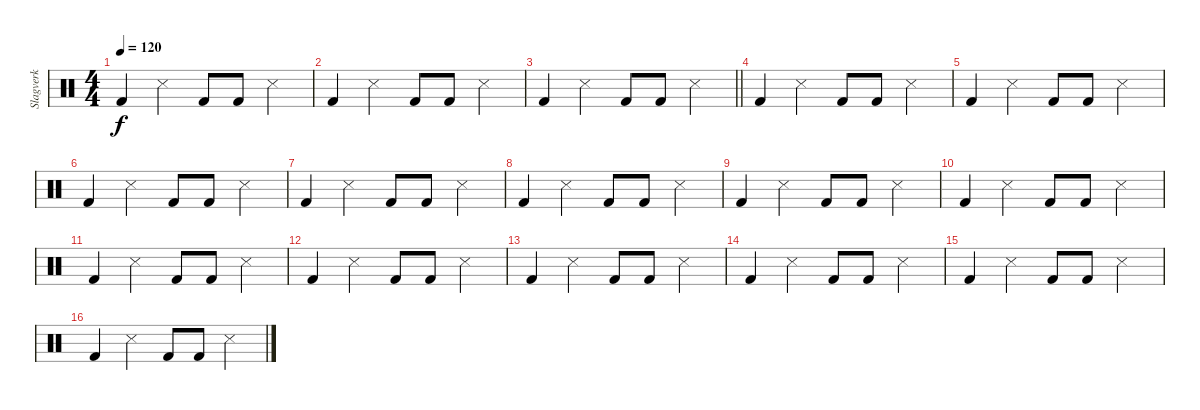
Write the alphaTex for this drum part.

\track ("Slagverk" "Slagverk") {instrument percussion}
\staff {score}
\articulation defaults
\ts (4 4)
\tempo 120
\clef neutral
\ks c "Kick (hit) 2".4{dy f} "Snare (side stick) 3".4 "Kick (hit) 2".8 "Kick (hit) 2".8 "Snare (side stick) 3".4
|
"Kick (hit) 2".4 "Snare (side stick) 3".4 "Kick (hit) 2".8 "Kick (hit) 2".8 "Snare (side stick) 3".4 |
\barLineRight lightlight "Kick (hit) 2".4 "Snare (side stick) 3".4 "Kick (hit) 2".8 "Kick (hit) 2".8 "Snare (side stick) 3".4
|
"Kick (hit) 2".4 "Snare (side stick) 3".4 "Kick (hit) 2".8 "Kick (hit) 2".8 "Snare (side stick) 3".4 |
"Kick (hit) 2".4 "Snare (side stick) 3".4 "Kick (hit) 2".8 "Kick (hit) 2".8 "Snare (side stick) 3".4 |
"Kick (hit) 2".4 "Snare (side stick) 3".4 "Kick (hit) 2".8 "Kick (hit) 2".8 "Snare (side stick) 3".4 |
"Kick (hit) 2".4 "Snare (side stick) 3".4 "Kick (hit) 2".8 "Kick (hit) 2".8 "Snare (side stick) 3".4 |
"Kick (hit) 2".4 "Snare (side stick) 3".4 "Kick (hit) 2".8 "Kick (hit) 2".8 "Snare (side stick) 3".4 |
"Kick (hit) 2".4 "Snare (side stick) 3".4 "Kick (hit) 2".8 "Kick (hit) 2".8 "Snare (side stick) 3".4 |
"Kick (hit) 2".4 "Snare (side stick) 3".4 "Kick (hit) 2".8 "Kick (hit) 2".8 "Snare (side stick) 3".4 |
"Kick (hit) 2".4 "Snare (side stick) 3".4 "Kick (hit) 2".8 "Kick (hit) 2".8 "Snare (side stick) 3".4 |
"Kick (hit) 2".4 "Snare (side stick) 3".4 "Kick (hit) 2".8 "Kick (hit) 2".8 "Snare (side stick) 3".4 |
"Kick (hit) 2".4 "Snare (side stick) 3".4 "Kick (hit) 2".8 "Kick (hit) 2".8 "Snare (side stick) 3".4 |
"Kick (hit) 2".4 "Snare (side stick) 3".4 "Kick (hit) 2".8 "Kick (hit) 2".8 "Snare (side stick) 3".4 |
"Kick (hit) 2".4 "Snare (side stick) 3".4 "Kick (hit) 2".8 "Kick (hit) 2".8 "Snare (side stick) 3".4 |
"Kick (hit) 2".4 "Snare (side stick) 3".4 "Kick (hit) 2".8 "Kick (hit) 2".8 "Snare (side stick) 3".4
